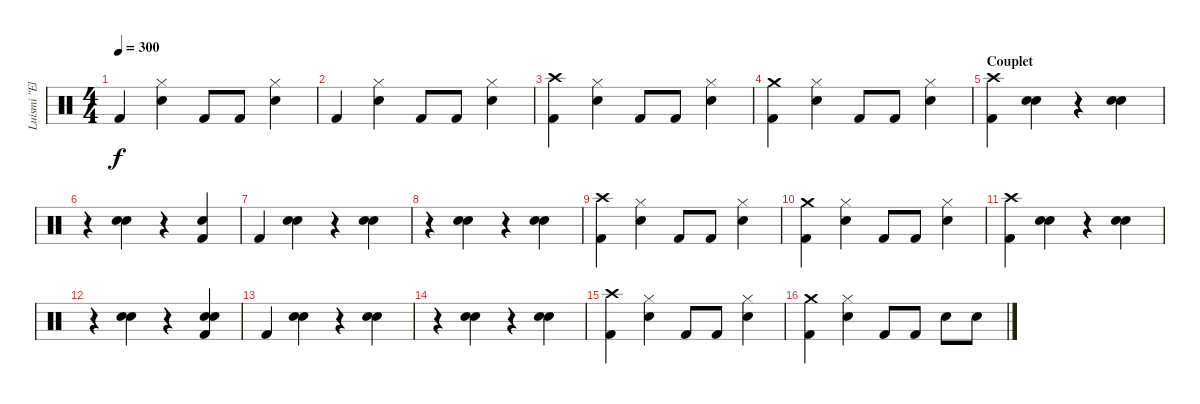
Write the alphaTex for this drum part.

\track ("Luismi \"El Papi\"" "Luismi \"El") {instrument percussion}
\staff {score}
\articulation defaults
\ts (4 4)
\tempo 300
\clef neutral
\ks c "Kick (hit) 2".4{dy f}
("Hi-Hat (closed)" "Snare (hit) 2").4 "Kick (hit) 2".8 "Kick (hit) 2".8 ("Hi-Hat (closed)" "Snare (hit) 2").4 |
"Kick (hit) 2".4 ("Hi-Hat (closed)" "Snare (hit) 2").4 "Kick (hit) 2".8 "Kick (hit) 2".8 ("Hi-Hat (closed)" "Snare (hit) 2").4 |
("Crash high (hit)" "Kick (hit) 2").4 ("Hi-Hat (closed)" "Snare (hit) 2").4 "Kick (hit) 2".8 "Kick (hit) 2".8 ("Hi-Hat (closed)" "Snare (hit) 2").4 |
("Crash medium (hit)" "Kick (hit) 2").4 ("Hi-Hat (closed)" "Snare (hit) 2").4 "Kick (hit) 2".8 "Kick (hit) 2".8 ("Hi-Hat (closed)" "Snare (hit) 2").4 |
\section ("" "Couplet")
("Crash high (hit)" "Kick (hit) 2").4 ("Snare (hit) 2" "Snare (hit) 2").4 r.4 ("Snare (hit) 2" "Snare (hit) 2").4 |
r.4 ("Snare (hit) 2" "Snare (hit) 2").4 r.4 ("Kick (hit) 2" "Snare (hit) 2").4 |
"Kick (hit) 2".4 ("Snare (hit) 2" "Snare (hit) 2").4 r.4 ("Snare (hit) 2" "Snare (hit) 2").4 |
r.4 ("Snare (hit) 2" "Snare (hit) 2").4 r.4 ("Snare (hit) 2" "Snare (hit) 2").4 |
("Crash high (hit)" "Kick (hit) 2").4 ("Hi-Hat (closed)" "Snare (hit) 2").4 "Kick (hit) 2".8 "Kick (hit) 2".8 ("Hi-Hat (closed)" "Snare (hit) 2").4 |
("Crash medium (hit)" "Kick (hit) 2").4 ("Hi-Hat (closed)" "Snare (hit) 2").4 "Kick (hit) 2".8 "Kick (hit) 2".8 ("Hi-Hat (closed)" "Snare (hit) 2").4 |
("Crash high (hit)" "Kick (hit) 2").4 ("Snare (hit) 2" "Snare (hit) 2").4 r.4 ("Snare (hit) 2" "Snare (hit) 2").4 |
r.4 ("Snare (hit) 2" "Snare (hit) 2").4 r.4 ("Kick (hit) 2" "Snare (hit) 2" "Snare (hit) 2").4 |
"Kick (hit) 2".4 ("Snare (hit) 2" "Snare (hit) 2").4 r.4 ("Snare (hit) 2" "Snare (hit) 2").4 |
r.4 ("Snare (hit) 2" "Snare (hit) 2").4 r.4 ("Snare (hit) 2" "Snare (hit) 2").4 |
("Crash high (hit)" "Kick (hit) 2").4 ("Hi-Hat (closed)" "Snare (hit) 2").4 "Kick (hit) 2".8 "Kick (hit) 2".8 ("Hi-Hat (closed)" "Snare (hit) 2").4 |
("Crash medium (hit)" "Kick (hit) 2").4 ("Hi-Hat (closed)" "Snare (hit) 2").4 "Kick (hit) 2".8 "Kick (hit) 2".8 "Snare (hit) 2".8 "Snare (hit) 2".8
